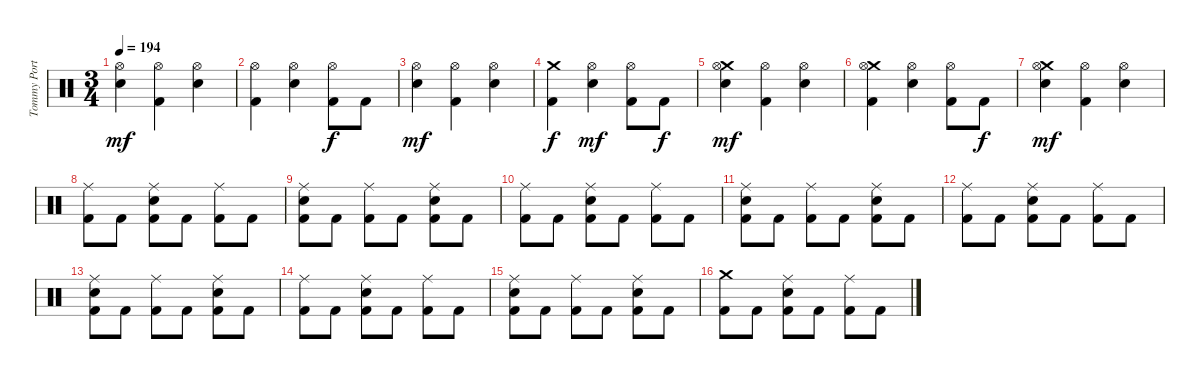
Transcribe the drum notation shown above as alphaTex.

\track ("Tommy Portino" "Tommy Port") {instrument percussion}
\staff {score}
\articulation defaults
\ts (3 4)
\tempo 194
\clef neutral
\ks c
("Hi-Hat (open)" "Snare (hit) 2").4{dy mf} ("Hi-Hat (open)" "Kick (hit) 2").4 ("Hi-Hat (open)" "Snare (hit) 2").4 |
("Hi-Hat (open)" "Kick (hit) 2").4 ("Hi-Hat (open)" "Snare (hit) 2").4 ("Hi-Hat (open)" "Kick (hit) 2").8{dy f} "Kick (hit) 2".8 |
("Hi-Hat (open)" "Snare (hit) 2").4{dy mf} ("Hi-Hat (open)" "Kick (hit) 2").4 ("Hi-Hat (open)" "Snare (hit) 2").4 |
("Crash medium (hit)" "Kick (hit) 2").4{dy f} ("Snare (hit) 2" "Hi-Hat (open)").4{dy mf} ("Hi-Hat (open)" "Kick (hit) 2").8 "Kick (hit) 2".8{dy f} |
("Crash medium (hit)" "Snare (hit) 2" "Hi-Hat (open)").4{dy mf} ("Hi-Hat (open)" "Kick (hit) 2").4 ("Snare (hit) 2" "Hi-Hat (open)").4 |
("Crash medium (hit)" "Hi-Hat (open)" "Kick (hit) 2").4 ("Snare (hit) 2" "Hi-Hat (open)").4 ("Hi-Hat (open)" "Kick (hit) 2").8 "Kick (hit) 2".8{dy f} |
("Crash medium (hit)" "Snare (hit) 2" "Hi-Hat (open)").4{dy mf} ("Hi-Hat (open)" "Kick (hit) 2").4 ("Snare (hit) 2" "Hi-Hat (open)").4 |
("Ride (middle)" "Kick (hit) 2").8 "Kick (hit) 2".8 ("Ride (middle)" "Snare (hit) 2" "Kick (hit) 2").8 "Kick (hit) 2".8 ("Ride (middle)" "Kick (hit) 2").8 "Kick (hit) 2".8 |
("Ride (middle)" "Snare (hit) 2" "Kick (hit) 2").8 "Kick (hit) 2".8 ("Ride (middle)" "Kick (hit) 2").8 "Kick (hit) 2".8 ("Ride (middle)" "Snare (hit) 2" "Kick (hit) 2").8 "Kick (hit) 2".8 |
("Ride (middle)" "Kick (hit) 2").8 "Kick (hit) 2".8 ("Ride (middle)" "Snare (hit) 2" "Kick (hit) 2").8 "Kick (hit) 2".8 ("Ride (middle)" "Kick (hit) 2").8 "Kick (hit) 2".8 |
("Ride (middle)" "Snare (hit) 2" "Kick (hit) 2").8 "Kick (hit) 2".8 ("Ride (middle)" "Kick (hit) 2").8 "Kick (hit) 2".8 ("Ride (middle)" "Snare (hit) 2" "Kick (hit) 2").8 "Kick (hit) 2".8 |
("Ride (middle)" "Kick (hit) 2").8 "Kick (hit) 2".8 ("Ride (middle)" "Snare (hit) 2" "Kick (hit) 2").8 "Kick (hit) 2".8 ("Ride (middle)" "Kick (hit) 2").8 "Kick (hit) 2".8 |
("Ride (middle)" "Snare (hit) 2" "Kick (hit) 2").8 "Kick (hit) 2".8 ("Ride (middle)" "Kick (hit) 2").8 "Kick (hit) 2".8 ("Ride (middle)" "Snare (hit) 2" "Kick (hit) 2").8 "Kick (hit) 2".8 |
("Ride (middle)" "Kick (hit) 2").8 "Kick (hit) 2".8 ("Ride (middle)" "Snare (hit) 2" "Kick (hit) 2").8 "Kick (hit) 2".8 ("Ride (middle)" "Kick (hit) 2").8 "Kick (hit) 2".8 |
("Ride (middle)" "Snare (hit) 2" "Kick (hit) 2").8 "Kick (hit) 2".8 ("Ride (middle)" "Kick (hit) 2").8 "Kick (hit) 2".8 ("Ride (middle)" "Snare (hit) 2" "Kick (hit) 2").8 "Kick (hit) 2".8 |
("Crash medium (hit)" "Kick (hit) 2").8 "Kick (hit) 2".8 ("Ride (middle)" "Snare (hit) 2" "Kick (hit) 2").8 "Kick (hit) 2".8 ("Ride (middle)" "Kick (hit) 2").8 "Kick (hit) 2".8
